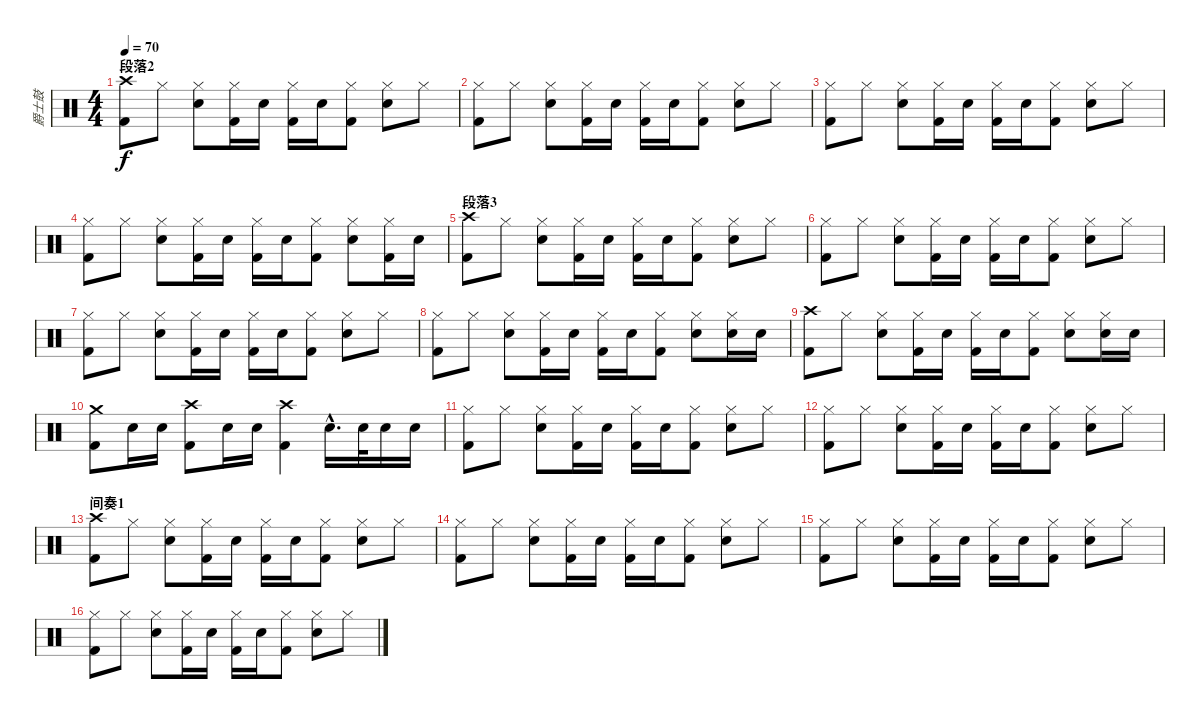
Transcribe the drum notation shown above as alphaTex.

\track ("爵士鼓" "爵士鼓") {instrument percussion}
\staff {score}
\articulation defaults
\ts (4 4)
\section ("" "段落2")
\tempo 70
\clef neutral
\ks c
("Crash high (hit)" "Kick (hit) 2").8{dy f} "Hi-Hat (closed)".8 ("Hi-Hat (closed)" "Electric Snare (hit)").8 ("Hi-Hat (closed)" "Kick (hit) 2").16 "Electric Snare (hit)".16 ("Hi-Hat (closed)" "Kick (hit) 2").16 "Electric Snare (hit)".16 ("Hi-Hat (closed)" "Kick (hit) 2").8 ("Hi-Hat (closed)" "Electric Snare (hit)").8 "Hi-Hat (closed)".8 |
("Hi-Hat (closed)" "Kick (hit) 2").8 "Hi-Hat (closed)".8 ("Hi-Hat (closed)" "Electric Snare (hit)").8 ("Hi-Hat (closed)" "Kick (hit) 2").16 "Electric Snare (hit)".16 ("Hi-Hat (closed)" "Kick (hit) 2").16 "Electric Snare (hit)".16 ("Hi-Hat (closed)" "Kick (hit) 2").8 ("Hi-Hat (closed)" "Electric Snare (hit)").8 "Hi-Hat (closed)".8 |
("Hi-Hat (closed)" "Kick (hit) 2").8 "Hi-Hat (closed)".8 ("Hi-Hat (closed)" "Electric Snare (hit)").8 ("Hi-Hat (closed)" "Kick (hit) 2").16 "Electric Snare (hit)".16 ("Hi-Hat (closed)" "Kick (hit) 2").16 "Electric Snare (hit)".16 ("Hi-Hat (closed)" "Kick (hit) 2").8 ("Hi-Hat (closed)" "Electric Snare (hit)").8 "Hi-Hat (closed)".8 |
("Hi-Hat (closed)" "Kick (hit) 2").8 "Hi-Hat (closed)".8 ("Hi-Hat (closed)" "Electric Snare (hit)").8 ("Hi-Hat (closed)" "Kick (hit) 2").16 "Electric Snare (hit)".16 ("Hi-Hat (closed)" "Kick (hit) 2").16 "Electric Snare (hit)".16 ("Hi-Hat (closed)" "Kick (hit) 2").8 ("Hi-Hat (closed)" "Electric Snare (hit)").8 ("Hi-Hat (closed)" "Kick (hit) 2").16 "Electric Snare (hit)".16 |
\section ("" "段落3")
("Crash high (hit)" "Kick (hit) 2").8 "Hi-Hat (closed)".8 ("Hi-Hat (closed)" "Electric Snare (hit)").8 ("Hi-Hat (closed)" "Kick (hit) 2").16 "Electric Snare (hit)".16 ("Hi-Hat (closed)" "Kick (hit) 2").16 "Electric Snare (hit)".16 ("Hi-Hat (closed)" "Kick (hit) 2").8 ("Hi-Hat (closed)" "Electric Snare (hit)").8 "Hi-Hat (closed)".8 |
("Hi-Hat (closed)" "Kick (hit) 2").8 "Hi-Hat (closed)".8 ("Hi-Hat (closed)" "Electric Snare (hit)").8 ("Hi-Hat (closed)" "Kick (hit) 2").16 "Electric Snare (hit)".16 ("Hi-Hat (closed)" "Kick (hit) 2").16 "Electric Snare (hit)".16 ("Hi-Hat (closed)" "Kick (hit) 2").8 ("Hi-Hat (closed)" "Electric Snare (hit)").8 "Hi-Hat (closed)".8 |
("Hi-Hat (closed)" "Kick (hit) 2").8 "Hi-Hat (closed)".8 ("Hi-Hat (closed)" "Electric Snare (hit)").8 ("Hi-Hat (closed)" "Kick (hit) 2").16 "Electric Snare (hit)".16 ("Hi-Hat (closed)" "Kick (hit) 2").16 "Electric Snare (hit)".16 ("Hi-Hat (closed)" "Kick (hit) 2").8 ("Hi-Hat (closed)" "Electric Snare (hit)").8 "Hi-Hat (closed)".8 |
("Hi-Hat (closed)" "Kick (hit) 2").8 "Hi-Hat (closed)".8 ("Hi-Hat (closed)" "Electric Snare (hit)").8 ("Hi-Hat (closed)" "Kick (hit) 2").16 "Electric Snare (hit)".16 ("Hi-Hat (closed)" "Kick (hit) 2").16 "Electric Snare (hit)".16 ("Hi-Hat (closed)" "Kick (hit) 2").8 ("Hi-Hat (closed)" "Electric Snare (hit)").8 ("Hi-Hat (closed)" "Electric Snare (hit)").16 "Electric Snare (hit)".16 |
("Crash high (hit)" "Kick (hit) 2").8 "Hi-Hat (closed)".8 ("Hi-Hat (closed)" "Electric Snare (hit)").8 ("Hi-Hat (closed)" "Kick (hit) 2").16 "Electric Snare (hit)".16 ("Hi-Hat (closed)" "Kick (hit) 2").16 "Electric Snare (hit)".16 ("Hi-Hat (closed)" "Kick (hit) 2").8 ("Hi-Hat (closed)" "Electric Snare (hit)").8 ("Hi-Hat (closed)" "Electric Snare (hit)").16 "Electric Snare (hit)".16 |
("Crash medium (hit)" "Kick (hit) 2").8 "Electric Snare (hit)".16 "Electric Snare (hit)".16 ("Crash high (hit)" "Kick (hit) 2").8 "Electric Snare (hit)".16 "Electric Snare (hit)".16 ("Crash high (hit)" "Kick (hit) 2").4 "Electric Snare (hit)"{hac}.16{d} "Electric Snare (hit)".32 "Electric Snare (hit)".16 "Electric Snare (hit)".16 |
("Hi-Hat (closed)" "Kick (hit) 2").8 "Hi-Hat (closed)".8 ("Hi-Hat (closed)" "Electric Snare (hit)").8 ("Hi-Hat (closed)" "Kick (hit) 2").16 "Electric Snare (hit)".16 ("Hi-Hat (closed)" "Kick (hit) 2").16 "Electric Snare (hit)".16 ("Hi-Hat (closed)" "Kick (hit) 2").8 ("Hi-Hat (closed)" "Electric Snare (hit)").8 "Hi-Hat (closed)".8 |
("Hi-Hat (closed)" "Kick (hit) 2").8 "Hi-Hat (closed)".8 ("Hi-Hat (closed)" "Electric Snare (hit)").8 ("Hi-Hat (closed)" "Kick (hit) 2").16 "Electric Snare (hit)".16 ("Hi-Hat (closed)" "Kick (hit) 2").16 "Electric Snare (hit)".16 ("Hi-Hat (closed)" "Kick (hit) 2").8 ("Hi-Hat (closed)" "Electric Snare (hit)").8 "Hi-Hat (closed)".8 |
\section ("" "间奏1")
("Crash high (hit)" "Kick (hit) 2").8 "Hi-Hat (closed)".8 ("Hi-Hat (closed)" "Electric Snare (hit)").8 ("Hi-Hat (closed)" "Kick (hit) 2").16 "Electric Snare (hit)".16 ("Hi-Hat (closed)" "Kick (hit) 2").16 "Electric Snare (hit)".16 ("Hi-Hat (closed)" "Kick (hit) 2").8 ("Hi-Hat (closed)" "Electric Snare (hit)").8 "Hi-Hat (closed)".8 |
("Hi-Hat (closed)" "Kick (hit) 2").8 "Hi-Hat (closed)".8 ("Hi-Hat (closed)" "Electric Snare (hit)").8 ("Hi-Hat (closed)" "Kick (hit) 2").16 "Electric Snare (hit)".16 ("Hi-Hat (closed)" "Kick (hit) 2").16 "Electric Snare (hit)".16 ("Hi-Hat (closed)" "Kick (hit) 2").8 ("Hi-Hat (closed)" "Electric Snare (hit)").8 "Hi-Hat (closed)".8 |
("Hi-Hat (closed)" "Kick (hit) 2").8 "Hi-Hat (closed)".8 ("Hi-Hat (closed)" "Electric Snare (hit)").8 ("Hi-Hat (closed)" "Kick (hit) 2").16 "Electric Snare (hit)".16 ("Hi-Hat (closed)" "Kick (hit) 2").16 "Electric Snare (hit)".16 ("Hi-Hat (closed)" "Kick (hit) 2").8 ("Hi-Hat (closed)" "Electric Snare (hit)").8 "Hi-Hat (closed)".8 |
("Hi-Hat (closed)" "Kick (hit) 2").8 "Hi-Hat (closed)".8 ("Hi-Hat (closed)" "Electric Snare (hit)").8 ("Hi-Hat (closed)" "Kick (hit) 2").16 "Electric Snare (hit)".16 ("Hi-Hat (closed)" "Kick (hit) 2").16 "Electric Snare (hit)".16 ("Hi-Hat (closed)" "Kick (hit) 2").8 ("Hi-Hat (closed)" "Electric Snare (hit)").8 "Hi-Hat (closed)".8
